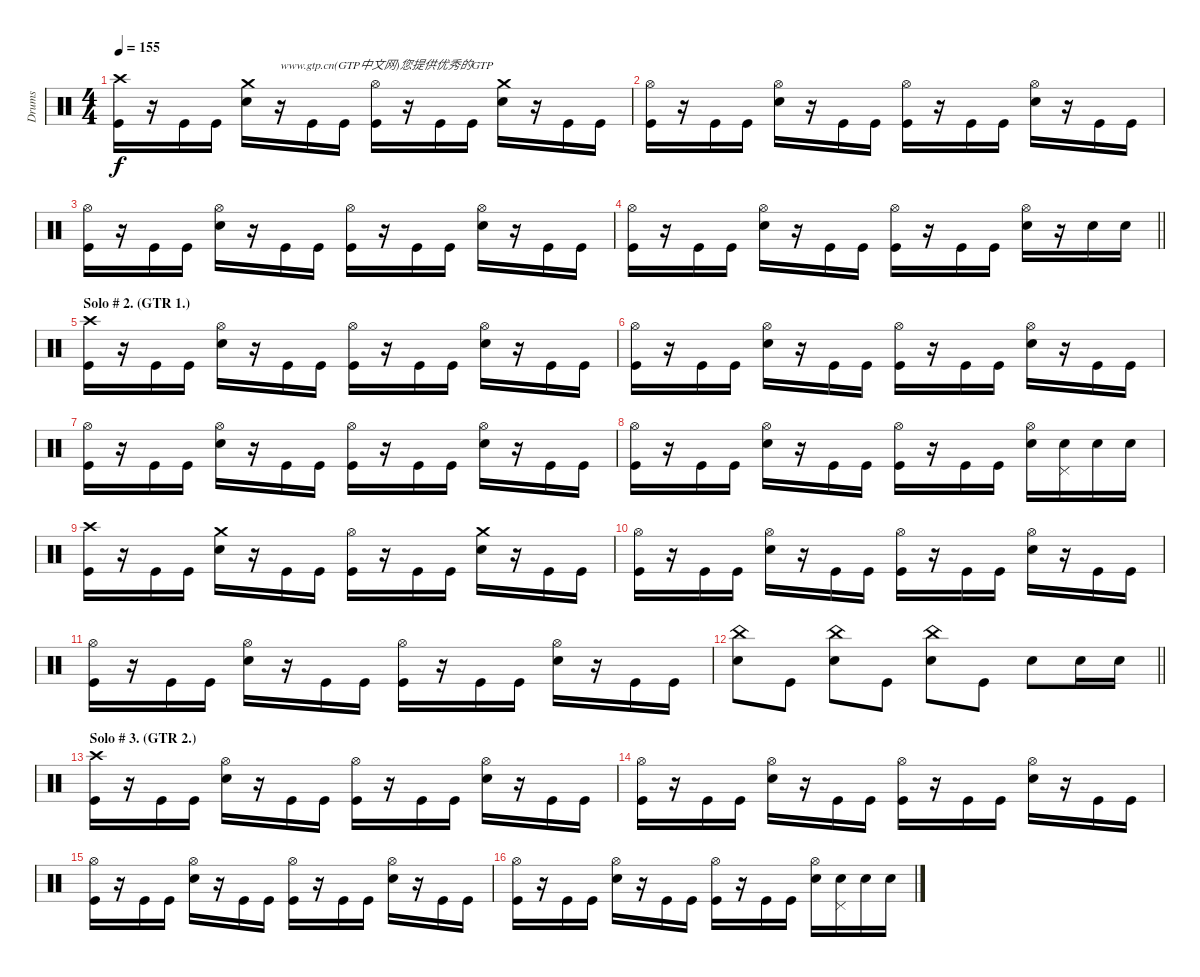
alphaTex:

\track ("Drums" "Drums") {instrument percussion}
\staff {score}
\articulation defaults
\ts (4 4)
\tempo 155
\clef neutral
\ks c
("Crash high (hit)" "Kick (hit)").16{dy f} r.16 "Kick (hit)".16 "Kick (hit)".16 ("Crash medium (hit)" "Electric Snare (hit)").16 r.16{txt "www.gtp.cn(GTP中文网)您提供优秀的GTP"} "Kick (hit)".16 "Kick (hit)".16 ("Hi-Hat (open)" "Kick (hit)").16 r.16 "Kick (hit)".16 "Kick (hit)".16 ("Crash medium (hit)" "Electric Snare (hit)").16 r.16 "Kick (hit)".16 "Kick (hit)".16 |
("Hi-Hat (open)" "Kick (hit)").16 r.16 "Kick (hit)".16 "Kick (hit)".16 ("Hi-Hat (open)" "Electric Snare (hit)").16 r.16 "Kick (hit)".16 "Kick (hit)".16 ("Hi-Hat (open)" "Kick (hit)").16 r.16 "Kick (hit)".16 "Kick (hit)".16 ("Hi-Hat (open)" "Electric Snare (hit)").16 r.16 "Kick (hit)".16 "Kick (hit)".16 |
("Hi-Hat (open)" "Kick (hit)").16 r.16 "Kick (hit)".16 "Kick (hit)".16 ("Hi-Hat (open)" "Electric Snare (hit)").16 r.16 "Kick (hit)".16 "Kick (hit)".16 ("Hi-Hat (open)" "Kick (hit)").16 r.16 "Kick (hit)".16 "Kick (hit)".16 ("Hi-Hat (open)" "Electric Snare (hit)").16 r.16 "Kick (hit)".16 "Kick (hit)".16 |
\barLineRight lightlight
("Hi-Hat (open)" "Kick (hit)").16 r.16 "Kick (hit)".16 "Kick (hit)".16 ("Hi-Hat (open)" "Electric Snare (hit)").16 r.16 "Kick (hit)".16 "Kick (hit)".16 ("Hi-Hat (open)" "Kick (hit)").16 r.16 "Kick (hit)".16 "Kick (hit)".16 ("Hi-Hat (open)" "Electric Snare (hit)").16 r.16 "Electric Snare (hit)".16 "Electric Snare (hit)".16 |
\section ("" "Solo # 2. (GTR 1.)")
("Crash high (hit)" "Kick (hit)").16 r.16 "Kick (hit)".16 "Kick (hit)".16 ("Hi-Hat (open)" "Electric Snare (hit)").16 r.16 "Kick (hit)".16 "Kick (hit)".16 ("Hi-Hat (open)" "Kick (hit)").16 r.16 "Kick (hit)".16 "Kick (hit)".16 ("Hi-Hat (open)" "Electric Snare (hit)").16 r.16 "Kick (hit)".16 "Kick (hit)".16 |
("Hi-Hat (open)" "Kick (hit)").16 r.16 "Kick (hit)".16 "Kick (hit)".16 ("Hi-Hat (open)" "Electric Snare (hit)").16 r.16 "Kick (hit)".16 "Kick (hit)".16 ("Hi-Hat (open)" "Kick (hit)").16 r.16 "Kick (hit)".16 "Kick (hit)".16 ("Hi-Hat (open)" "Electric Snare (hit)").16 r.16 "Kick (hit)".16 "Kick (hit)".16 |
("Hi-Hat (open)" "Kick (hit)").16 r.16 "Kick (hit)".16 "Kick (hit)".16 ("Hi-Hat (open)" "Electric Snare (hit)").16 r.16 "Kick (hit)".16 "Kick (hit)".16 ("Hi-Hat (open)" "Kick (hit)").16 r.16 "Kick (hit)".16 "Kick (hit)".16 ("Hi-Hat (open)" "Electric Snare (hit)").16 r.16 "Kick (hit)".16 "Kick (hit)".16 |
("Hi-Hat (open)" "Kick (hit)").16 r.16 "Kick (hit)".16 "Kick (hit)".16 ("Hi-Hat (open)" "Electric Snare (hit)").16 r.16 "Kick (hit)".16 "Kick (hit)".16 ("Hi-Hat (open)" "Kick (hit)").16 r.16 "Kick (hit)".16 "Kick (hit)".16 ("Hi-Hat (open)" "Electric Snare (hit)").16 ("Pedal Hi-Hat (hit)" "Electric Snare (hit)").16 "Electric Snare (hit)".16 "Electric Snare (hit)".16 |
("Crash high (hit)" "Kick (hit)").16 r.16 "Kick (hit)".16 "Kick (hit)".16 ("Crash medium (hit)" "Electric Snare (hit)").16 r.16 "Kick (hit)".16 "Kick (hit)".16 ("Hi-Hat (open)" "Kick (hit)").16 r.16 "Kick (hit)".16 "Kick (hit)".16 ("Crash medium (hit)" "Electric Snare (hit)").16 r.16 "Kick (hit)".16 "Kick (hit)".16 |
("Hi-Hat (open)" "Kick (hit)").16 r.16 "Kick (hit)".16 "Kick (hit)".16 ("Hi-Hat (open)" "Electric Snare (hit)").16 r.16 "Kick (hit)".16 "Kick (hit)".16 ("Hi-Hat (open)" "Kick (hit)").16 r.16 "Kick (hit)".16 "Kick (hit)".16 ("Hi-Hat (open)" "Electric Snare (hit)").16 r.16 "Kick (hit)".16 "Kick (hit)".16 |
("Hi-Hat (open)" "Kick (hit)").16 r.16 "Kick (hit)".16 "Kick (hit)".16 ("Hi-Hat (open)" "Electric Snare (hit)").16 r.16 "Kick (hit)".16 "Kick (hit)".16 ("Hi-Hat (open)" "Kick (hit)").16 r.16 "Kick (hit)".16 "Kick (hit)".16 ("Hi-Hat (open)" "Electric Snare (hit)").16 r.16 "Kick (hit)".16 "Kick (hit)".16 |
\barLineRight lightlight
("China (hit)" "Electric Snare (hit)").8 "Kick (hit)".8 ("China (hit)" "Electric Snare (hit)").8 "Kick (hit)".8 ("China (hit)" "Electric Snare (hit)").8 "Kick (hit)".8 "Electric Snare (hit)".8 "Electric Snare (hit)".16 "Electric Snare (hit)".16 |
\section ("" "Solo # 3. (GTR 2.)")
("Crash high (hit)" "Kick (hit)").16 r.16 "Kick (hit)".16 "Kick (hit)".16 ("Hi-Hat (open)" "Electric Snare (hit)").16 r.16 "Kick (hit)".16 "Kick (hit)".16 ("Hi-Hat (open)" "Kick (hit)").16 r.16 "Kick (hit)".16 "Kick (hit)".16 ("Hi-Hat (open)" "Electric Snare (hit)").16 r.16 "Kick (hit)".16 "Kick (hit)".16 |
("Hi-Hat (open)" "Kick (hit)").16 r.16 "Kick (hit)".16 "Kick (hit)".16 ("Hi-Hat (open)" "Electric Snare (hit)").16 r.16 "Kick (hit)".16 "Kick (hit)".16 ("Hi-Hat (open)" "Kick (hit)").16 r.16 "Kick (hit)".16 "Kick (hit)".16 ("Hi-Hat (open)" "Electric Snare (hit)").16 r.16 "Kick (hit)".16 "Kick (hit)".16 |
("Hi-Hat (open)" "Kick (hit)").16 r.16 "Kick (hit)".16 "Kick (hit)".16 ("Hi-Hat (open)" "Electric Snare (hit)").16 r.16 "Kick (hit)".16 "Kick (hit)".16 ("Hi-Hat (open)" "Kick (hit)").16 r.16 "Kick (hit)".16 "Kick (hit)".16 ("Hi-Hat (open)" "Electric Snare (hit)").16 r.16 "Kick (hit)".16 "Kick (hit)".16 |
("Hi-Hat (open)" "Kick (hit)").16 r.16 "Kick (hit)".16 "Kick (hit)".16 ("Hi-Hat (open)" "Electric Snare (hit)").16 r.16 "Kick (hit)".16 "Kick (hit)".16 ("Hi-Hat (open)" "Kick (hit)").16 r.16 "Kick (hit)".16 "Kick (hit)".16 ("Hi-Hat (open)" "Electric Snare (hit)").16 ("Pedal Hi-Hat (hit)" "Electric Snare (hit)").16 "Electric Snare (hit)".16 "Electric Snare (hit)".16
